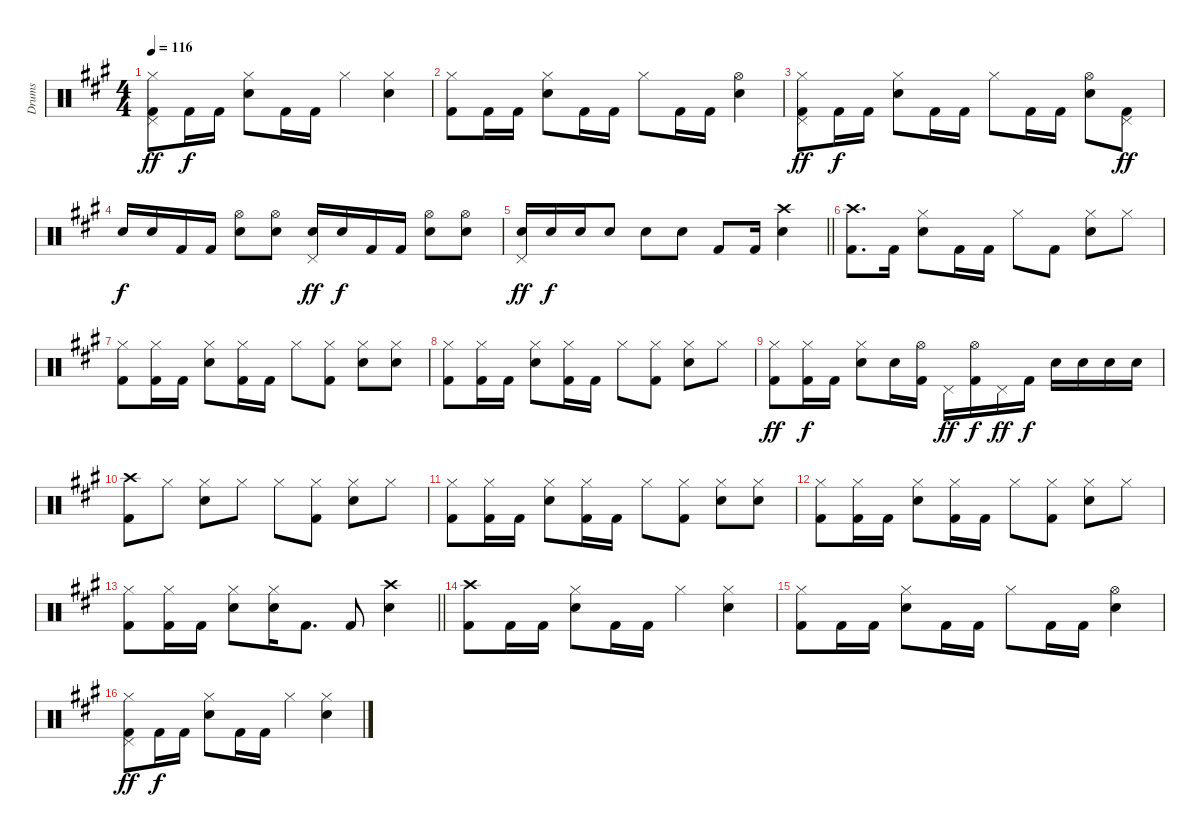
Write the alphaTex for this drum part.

\track ("Drums" "Drums") {instrument percussion}
\staff {score}
\articulation defaults
\ts (4 4)
\tempo 116
\clef neutral
\ks a
("Hi-Hat (closed)" "Kick (hit) 2" "Pedal Hi-Hat (hit)").8{dy ff} "Kick (hit) 2".16{dy f} "Kick (hit) 2".16 ("Hi-Hat (closed)" "Snare (hit) 2").8 "Kick (hit) 2".16 "Kick (hit) 2".16 "Hi-Hat (closed)".4 ("Hi-Hat (closed)" "Snare (hit) 2").4 |
("Hi-Hat (closed)" "Kick (hit) 2").8 "Kick (hit) 2".16 "Kick (hit) 2".16 ("Hi-Hat (closed)" "Snare (hit) 2").8 "Kick (hit) 2".16 "Kick (hit) 2".16 "Hi-Hat (closed)".8 "Kick (hit) 2".16 "Kick (hit) 2".16 ("Hi-Hat (open)" "Snare (hit) 2").4 |
("Hi-Hat (closed)" "Kick (hit) 2" "Pedal Hi-Hat (hit)").8{dy ff} "Kick (hit) 2".16{dy f} "Kick (hit) 2".16 ("Hi-Hat (closed)" "Snare (hit) 2").8 "Kick (hit) 2".16 "Kick (hit) 2".16 "Hi-Hat (closed)".8 "Kick (hit) 2".16 "Kick (hit) 2".16 ("Hi-Hat (open)" "Snare (hit) 2").8 ("Kick (hit) 2" "Pedal Hi-Hat (hit)").8{dy ff} |
"Snare (hit) 2".16{dy f} "Snare (hit) 2".16 "Kick (hit) 2".16 "Kick (hit) 2".16 ("Hi-Hat (open)" "Snare (hit) 2").8 ("Hi-Hat (open)" "Snare (hit) 2").8 ("Snare (hit) 2" "Pedal Hi-Hat (hit)").16{dy ff} "Snare (hit) 2".16{dy f} "Kick (hit) 2".16 "Kick (hit) 2".16 ("Hi-Hat (open)" "Snare (hit) 2").8 ("Hi-Hat (open)" "Snare (hit) 2").8 |
\barLineRight lightlight
("Snare (hit) 2" "Pedal Hi-Hat (hit)").16{dy ff} "Snare (hit) 2".16{dy f} "Snare (hit) 2".16 "Snare (hit) 2".8 "Snare (hit) 2".8 "Snare (hit) 2".8 "Kick (hit) 2".8 "Kick (hit) 2".16 ("Crash high (hit)" "Snare (hit) 2").4 |
("Crash high (hit)" "Kick (hit) 2").8{d} "Kick (hit) 2".16 ("Hi-Hat (closed)" "Snare (hit) 2").8 "Kick (hit) 2".16 "Kick (hit) 2".16 "Hi-Hat (closed)".8 "Kick (hit) 2".8 ("Hi-Hat (closed)" "Snare (hit) 2").8 "Hi-Hat (closed)".8 |
("Hi-Hat (closed)" "Kick (hit) 2").8 ("Hi-Hat (closed)" "Kick (hit) 2").16 "Kick (hit) 2".16 ("Hi-Hat (closed)" "Snare (hit) 2").8 ("Hi-Hat (closed)" "Kick (hit) 2").16 "Kick (hit) 2".16 "Hi-Hat (closed)".8 ("Hi-Hat (closed)" "Kick (hit) 2").8 ("Hi-Hat (closed)" "Snare (hit) 2").8 ("Hi-Hat (closed)" "Snare (hit) 2").8 |
("Hi-Hat (closed)" "Kick (hit) 2").8 ("Hi-Hat (closed)" "Kick (hit) 2").16 "Kick (hit) 2".16 ("Hi-Hat (closed)" "Snare (hit) 2").8 ("Hi-Hat (closed)" "Kick (hit) 2").16 "Kick (hit) 2".16 "Hi-Hat (closed)".8 ("Hi-Hat (closed)" "Kick (hit) 2").8 ("Hi-Hat (closed)" "Snare (hit) 2").8 "Hi-Hat (closed)".8 |
("Hi-Hat (closed)" "Kick (hit) 2").8{dy ff} ("Hi-Hat (closed)" "Kick (hit) 2").16{dy f} "Kick (hit) 2".16 ("Hi-Hat (closed)" "Snare (hit) 2").8 "Snare (hit) 2".16 ("Hi-Hat (open)" "Kick (hit) 2").16 "Pedal Hi-Hat (hit)".16{dy ff} ("Hi-Hat (open)" "Kick (hit) 2").16{dy f} "Pedal Hi-Hat (hit)".16{dy ff} "Kick (hit) 2".16{dy f} "Snare (hit) 2".16 "Snare (hit) 2".16 "Snare (hit) 2".16 "Snare (hit) 2".16 |
("Crash high (hit)" "Kick (hit) 2").8 "Hi-Hat (closed)".8 ("Hi-Hat (closed)" "Snare (hit) 2").8 "Hi-Hat (closed)".8 "Hi-Hat (closed)".8 ("Hi-Hat (closed)" "Kick (hit) 2").8 ("Hi-Hat (closed)" "Snare (hit) 2").8 "Hi-Hat (closed)".8 |
("Hi-Hat (closed)" "Kick (hit) 2").8 ("Hi-Hat (closed)" "Kick (hit) 2").16 "Kick (hit) 2".16 ("Hi-Hat (closed)" "Snare (hit) 2").8 ("Hi-Hat (closed)" "Kick (hit) 2").16 "Kick (hit) 2".16 "Hi-Hat (closed)".8 ("Hi-Hat (closed)" "Kick (hit) 2").8 ("Hi-Hat (closed)" "Snare (hit) 2").8 ("Hi-Hat (closed)" "Snare (hit) 2").8 |
("Hi-Hat (closed)" "Kick (hit) 2").8 ("Hi-Hat (closed)" "Kick (hit) 2").16 "Kick (hit) 2".16 ("Hi-Hat (closed)" "Snare (hit) 2").8 ("Hi-Hat (closed)" "Kick (hit) 2").16 "Kick (hit) 2".16 "Hi-Hat (closed)".8 ("Hi-Hat (closed)" "Kick (hit) 2").8 ("Hi-Hat (closed)" "Snare (hit) 2").8 "Hi-Hat (closed)".8 |
\barLineRight lightlight
("Hi-Hat (closed)" "Kick (hit) 2").8 ("Hi-Hat (closed)" "Kick (hit) 2").16 "Kick (hit) 2".16 ("Hi-Hat (closed)" "Snare (hit) 2").8 ("Hi-Hat (closed)" "Snare (hit) 2").16 "Kick (hit) 2".8{d} "Kick (hit) 2".8 ("Snare (hit) 2" "Crash high (hit)").4 |
("Crash high (hit)" "Kick (hit) 2").8 "Kick (hit) 2".16 "Kick (hit) 2".16 ("Hi-Hat (closed)" "Snare (hit) 2").8 "Kick (hit) 2".16 "Kick (hit) 2".16 "Hi-Hat (closed)".4 ("Hi-Hat (closed)" "Snare (hit) 2").4 |
("Hi-Hat (closed)" "Kick (hit) 2").8 "Kick (hit) 2".16 "Kick (hit) 2".16 ("Hi-Hat (closed)" "Snare (hit) 2").8 "Kick (hit) 2".16 "Kick (hit) 2".16 "Hi-Hat (closed)".8 "Kick (hit) 2".16 "Kick (hit) 2".16 ("Hi-Hat (open)" "Snare (hit) 2").4 |
("Hi-Hat (closed)" "Kick (hit) 2" "Pedal Hi-Hat (hit)").8{dy ff} "Kick (hit) 2".16{dy f} "Kick (hit) 2".16 ("Hi-Hat (closed)" "Snare (hit) 2").8 "Kick (hit) 2".16 "Kick (hit) 2".16 "Hi-Hat (closed)".4 ("Hi-Hat (closed)" "Snare (hit) 2").4
